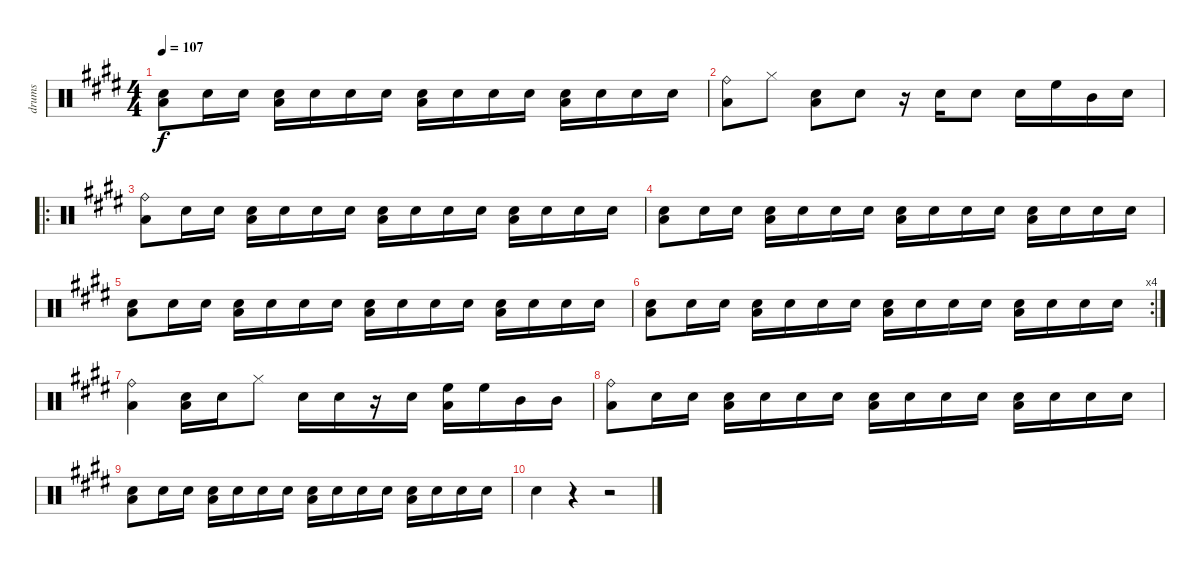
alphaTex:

\track ("drums" "drums") {instrument percussion}
\staff {score}
\articulation defaults
\ts (4 4)
\tempo 107
\clef neutral
\ks e
("Electric Snare (hit)" "Low Floor Tom (hit)").8{dy f} "Electric Snare (hit)".16 "Electric Snare (hit)".16 ("Electric Snare (hit)" "Low Floor Tom (hit)").16 "Electric Snare (hit)".16 "Electric Snare (hit)".16 "Electric Snare (hit)".16 ("Electric Snare (hit)" "Low Floor Tom (hit)").16 "Electric Snare (hit)".16 "Electric Snare (hit)".16 "Electric Snare (hit)".16 ("Electric Snare (hit)" "Low Floor Tom (hit)").16 "Electric Snare (hit)".16 "Electric Snare (hit)".16 "Electric Snare (hit)".16 |
("Ride (bell)" "Low Floor Tom (hit)").8 "Hi-Hat (closed)".8 ("Electric Snare (hit)" "Low Floor Tom (hit)").8 "Electric Snare (hit)".8 r.16 "Electric Snare (hit)".16 "Electric Snare (hit)".8 "Electric Snare (hit)".16 "High Floor Tom (hit)".16 "Mid Tom (hit)".16 "Snare (hit) 2".16 |
\ro
("Ride (bell)" "Low Floor Tom (hit)").8 "Electric Snare (hit)".16 "Electric Snare (hit)".16 ("Electric Snare (hit)" "Low Floor Tom (hit)").16 "Electric Snare (hit)".16 "Electric Snare (hit)".16 "Electric Snare (hit)".16 ("Electric Snare (hit)" "Low Floor Tom (hit)").16 "Electric Snare (hit)".16 "Electric Snare (hit)".16 "Electric Snare (hit)".16 ("Electric Snare (hit)" "Low Floor Tom (hit)").16 "Electric Snare (hit)".16 "Electric Snare (hit)".16 "Electric Snare (hit)".16 |
("Electric Snare (hit)" "Low Floor Tom (hit)").8 "Electric Snare (hit)".16 "Electric Snare (hit)".16 ("Electric Snare (hit)" "Low Floor Tom (hit)").16 "Electric Snare (hit)".16 "Electric Snare (hit)".16 "Electric Snare (hit)".16 ("Electric Snare (hit)" "Low Floor Tom (hit)").16 "Electric Snare (hit)".16 "Electric Snare (hit)".16 "Electric Snare (hit)".16 ("Electric Snare (hit)" "Low Floor Tom (hit)").16 "Electric Snare (hit)".16 "Electric Snare (hit)".16 "Electric Snare (hit)".16 |
("Electric Snare (hit)" "Low Floor Tom (hit)").8 "Electric Snare (hit)".16 "Electric Snare (hit)".16 ("Electric Snare (hit)" "Low Floor Tom (hit)").16 "Electric Snare (hit)".16 "Electric Snare (hit)".16 "Electric Snare (hit)".16 ("Electric Snare (hit)" "Low Floor Tom (hit)").16 "Electric Snare (hit)".16 "Electric Snare (hit)".16 "Electric Snare (hit)".16 ("Electric Snare (hit)" "Low Floor Tom (hit)").16 "Electric Snare (hit)".16 "Electric Snare (hit)".16 "Electric Snare (hit)".16 |
\rc 4
("Electric Snare (hit)" "Low Floor Tom (hit)").8 "Electric Snare (hit)".16 "Electric Snare (hit)".16 ("Electric Snare (hit)" "Low Floor Tom (hit)").16 "Electric Snare (hit)".16 "Electric Snare (hit)".16 "Electric Snare (hit)".16 ("Electric Snare (hit)" "Low Floor Tom (hit)").16 "Electric Snare (hit)".16 "Electric Snare (hit)".16 "Electric Snare (hit)".16 ("Electric Snare (hit)" "Low Floor Tom (hit)").16 "Electric Snare (hit)".16 "Electric Snare (hit)".16 "Electric Snare (hit)".16 |
("Ride (bell)" "Low Floor Tom (hit)").4 ("Electric Snare (hit)" "Low Floor Tom (hit)").16 "Electric Snare (hit)".16 "Hi-Hat (closed)".8 "Electric Snare (hit)".16 "Electric Snare (hit)".16 r.16 "Electric Snare (hit)".16 ("High Floor Tom (hit)" "Low Floor Tom (hit)").16 "High Floor Tom (hit)".16 "Mid Tom (hit)".16 "Mid Tom (hit)".16 |
("Ride (bell)" "Low Floor Tom (hit)").8 "Electric Snare (hit)".16 "Electric Snare (hit)".16 ("Electric Snare (hit)" "Low Floor Tom (hit)").16 "Electric Snare (hit)".16 "Electric Snare (hit)".16 "Electric Snare (hit)".16 ("Electric Snare (hit)" "Low Floor Tom (hit)").16 "Electric Snare (hit)".16 "Electric Snare (hit)".16 "Electric Snare (hit)".16 ("Electric Snare (hit)" "Low Floor Tom (hit)").16 "Electric Snare (hit)".16 "Electric Snare (hit)".16 "Electric Snare (hit)".16 |
("Electric Snare (hit)" "Low Floor Tom (hit)").8 "Electric Snare (hit)".16 "Electric Snare (hit)".16 ("Electric Snare (hit)" "Low Floor Tom (hit)").16 "Electric Snare (hit)".16 "Electric Snare (hit)".16 "Electric Snare (hit)".16 ("Electric Snare (hit)" "Low Floor Tom (hit)").16 "Electric Snare (hit)".16 "Electric Snare (hit)".16 "Electric Snare (hit)".16 ("Electric Snare (hit)" "Low Floor Tom (hit)").16 "Electric Snare (hit)".16 "Electric Snare (hit)".16 "Electric Snare (hit)".16 |
"Electric Snare (hit)".4 r.4 r.2
